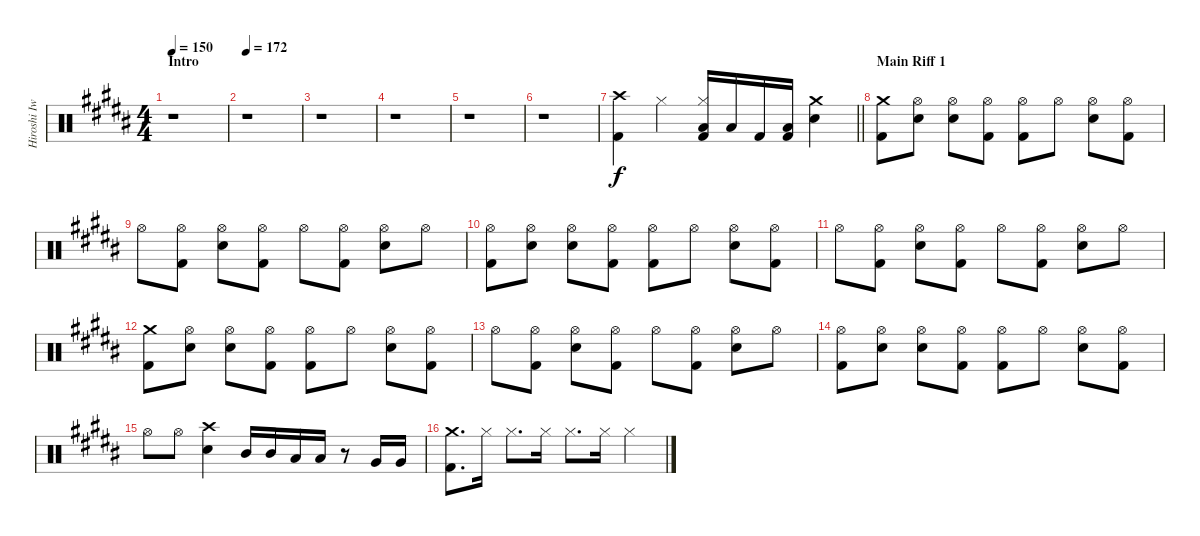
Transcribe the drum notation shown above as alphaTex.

\track ("Hiroshi Iwasaki - Drums" "Hiroshi Iw") {instrument percussion}
\staff {score}
\articulation defaults
\ts (4 4)
\section ("" "Intro")
\tempo 150
\clef neutral
\ks b
r.1{dy f} |
\tempo 172
r.1 |
r.1 |
r.1 |
r.1 |
r.1 |
\barLineRight lightlight
("Crash high (hit)" "Kick (hit) 2").4 "Hi-Hat (closed)".4 ("Hi-Hat (closed)" "Low Tom (hit)" "Kick (hit) 2").16 "Low Tom (hit)".16 "Kick (hit) 2".16 ("Low Tom (hit)" "Kick (hit) 2").16 ("Snare (hit) 2" "Crash medium (hit)").4 |
\section ("" "Main Riff 1")
("Crash medium (hit)" "Kick (hit) 2").8 ("Snare (hit) 2" "Hi-Hat (open)").8 ("Snare (hit) 2" "Hi-Hat (open)").8 ("Hi-Hat (open)" "Kick (hit) 2").8 ("Hi-Hat (open)" "Kick (hit) 2").8 "Hi-Hat (open)".8 ("Snare (hit) 2" "Hi-Hat (open)").8 ("Hi-Hat (open)" "Kick (hit) 2").8 |
"Hi-Hat (open)".8 ("Hi-Hat (open)" "Kick (hit) 2").8 ("Snare (hit) 2" "Hi-Hat (open)").8 ("Hi-Hat (open)" "Kick (hit) 2").8 "Hi-Hat (open)".8 ("Hi-Hat (open)" "Kick (hit) 2").8 ("Snare (hit) 2" "Hi-Hat (open)").8 "Hi-Hat (open)".8 |
("Hi-Hat (open)" "Kick (hit) 2").8 ("Snare (hit) 2" "Hi-Hat (open)").8 ("Snare (hit) 2" "Hi-Hat (open)").8 ("Hi-Hat (open)" "Kick (hit) 2").8 ("Hi-Hat (open)" "Kick (hit) 2").8 "Hi-Hat (open)".8 ("Snare (hit) 2" "Hi-Hat (open)").8 ("Hi-Hat (open)" "Kick (hit) 2").8 |
"Hi-Hat (open)".8 ("Hi-Hat (open)" "Kick (hit) 2").8 ("Snare (hit) 2" "Hi-Hat (open)").8 ("Hi-Hat (open)" "Kick (hit) 2").8 "Hi-Hat (open)".8 ("Hi-Hat (open)" "Kick (hit) 2").8 ("Snare (hit) 2" "Hi-Hat (open)").8 "Hi-Hat (open)".8 |
("Crash medium (hit)" "Kick (hit) 2").8 ("Snare (hit) 2" "Hi-Hat (open)").8 ("Snare (hit) 2" "Hi-Hat (open)").8 ("Hi-Hat (open)" "Kick (hit) 2").8 ("Hi-Hat (open)" "Kick (hit) 2").8 "Hi-Hat (open)".8 ("Snare (hit) 2" "Hi-Hat (open)").8 ("Hi-Hat (open)" "Kick (hit) 2").8 |
"Hi-Hat (open)".8 ("Hi-Hat (open)" "Kick (hit) 2").8 ("Snare (hit) 2" "Hi-Hat (open)").8 ("Hi-Hat (open)" "Kick (hit) 2").8 "Hi-Hat (open)".8 ("Hi-Hat (open)" "Kick (hit) 2").8 ("Snare (hit) 2" "Hi-Hat (open)").8 "Hi-Hat (open)".8 |
("Hi-Hat (open)" "Kick (hit) 2").8 ("Snare (hit) 2" "Hi-Hat (open)").8 ("Snare (hit) 2" "Hi-Hat (open)").8 ("Hi-Hat (open)" "Kick (hit) 2").8 ("Hi-Hat (open)" "Kick (hit) 2").8 "Hi-Hat (open)".8 ("Snare (hit) 2" "Hi-Hat (open)").8 ("Hi-Hat (open)" "Kick (hit) 2").8 |
"Hi-Hat (open)".8 "Hi-Hat (open)".8 ("Snare (hit) 2" "Crash high (hit)").4 "Mid Tom (hit)".16 "Mid Tom (hit)".16 "Low Tom (hit)".16 "Low Tom (hit)".16 r.8 "Very Low Tom (hit)".16 "Very Low Tom (hit)".16 |
("Crash medium (hit)" "Kick (hit) 2").8{d} "Hi-Hat (closed)".16 "Hi-Hat (closed)".8{d} "Hi-Hat (closed)".16 "Hi-Hat (closed)".8{d} "Hi-Hat (closed)".16 "Hi-Hat (closed)".4
